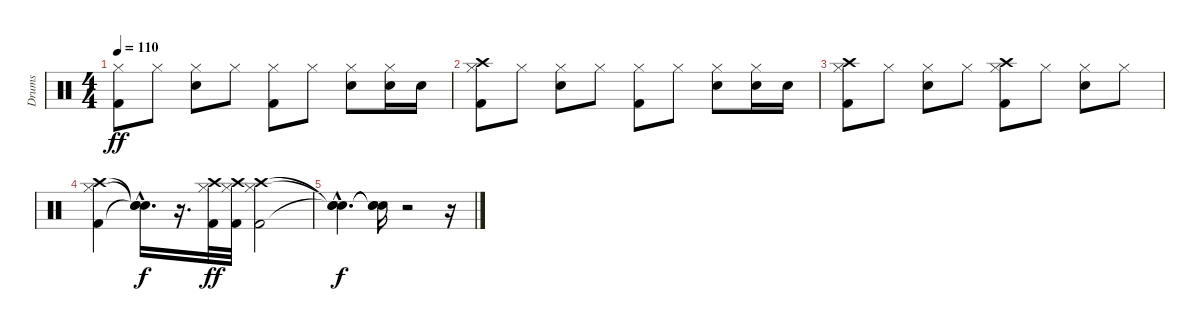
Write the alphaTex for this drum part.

\track ("Drums" "Drums") {instrument percussion}
\staff {score}
\articulation defaults
\ts (4 4)
\tempo 110
\clef neutral
\ks c
("Kick (hit) 2" "Hi-Hat (closed)").8{dy ff} "Hi-Hat (closed)".8 ("Snare (hit) 2" "Hi-Hat (closed)").8 "Hi-Hat (closed)".8 ("Kick (hit) 2" "Hi-Hat (closed)").8 "Hi-Hat (closed)".8 ("Snare (hit) 2" "Hi-Hat (closed)").8 ("Snare (hit) 2" "Hi-Hat (closed)").16 "Snare (hit) 2".16 |
("Kick (hit) 2" "Hi-Hat (closed)" "Crash high (hit)").8 "Hi-Hat (closed)".8 ("Snare (hit) 2" "Hi-Hat (closed)").8 "Hi-Hat (closed)".8 ("Kick (hit) 2" "Hi-Hat (closed)").8 "Hi-Hat (closed)".8 ("Snare (hit) 2" "Hi-Hat (closed)").8 ("Snare (hit) 2" "Hi-Hat (closed)").16 "Snare (hit) 2".16 |
("Kick (hit) 2" "Hi-Hat (closed)" "Crash high (hit)").8 "Hi-Hat (closed)".8 ("Snare (hit) 2" "Hi-Hat (closed)").8 "Hi-Hat (closed)".8 ("Kick (hit) 2" "Hi-Hat (closed)" "Crash high (hit)").8 "Hi-Hat (closed)".8 ("Snare (hit) 2" "Hi-Hat (closed)").8 "Hi-Hat (closed)".8 |
("Kick (hit) 2" "Hi-Hat (closed)" "Crash high (hit)").4 ("Snare (hit)"{hac t} "Snare (hit)"{hac t} "Snare (hit)"{hac t}).16{d dy f} r.16{d} ("Kick (hit) 2" "Hi-Hat (closed)" "Crash high (hit)").32{dy ff} ("Kick (hit) 2" "Hi-Hat (closed)" "Crash high (hit)").32 ("Kick (hit) 2" "Hi-Hat (closed)" "Crash high (hit)").2{volume 16} |
("Snare (hit)"{hac t} "Snare (hit)"{hac t} "Snare (hit)"{hac t}).4{d dy f} ("Snare (hit)"{t} "Snare (hit)"{t} "Snare (hit)"{t}).16 r.2 r.16
